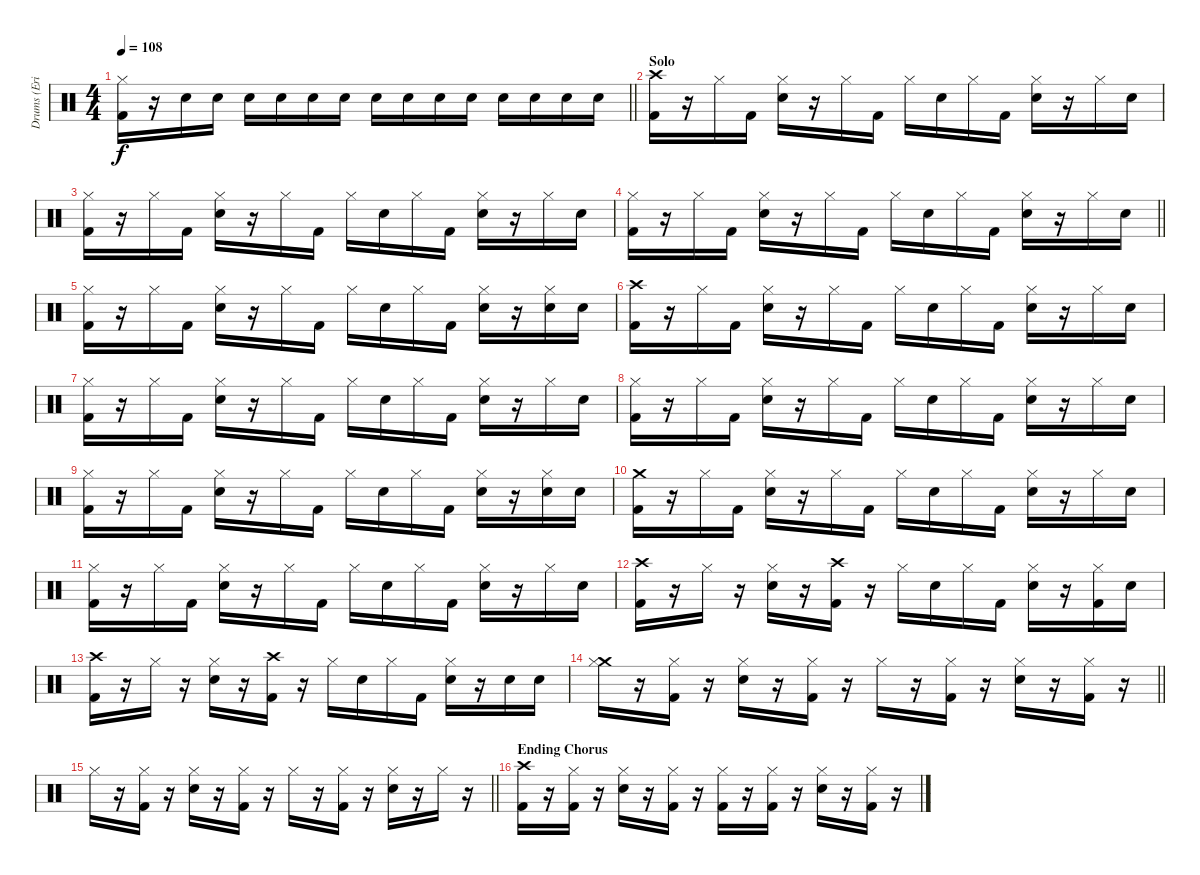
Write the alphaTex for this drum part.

\track ("Drums (Eric Kretz)" "Drums (Eri") {instrument percussion}
\staff {score}
\articulation defaults
\ts (4 4)
\tempo 108
\clef neutral
\barLineRight lightlight
\ks c
("Hi-Hat (closed)" "Kick (hit) 2").16{dy f} r.16 "Electric Snare (hit)".16 "Electric Snare (hit)".16 "Electric Snare (hit)".16 "Electric Snare (hit)".16 "Electric Snare (hit)".16 "Electric Snare (hit)".16 "Electric Snare (hit)".16 "Electric Snare (hit)".16 "Electric Snare (hit)".16 "Electric Snare (hit)".16 "Electric Snare (hit)".16 "Electric Snare (hit)".16 "Electric Snare (hit)".16 "Electric Snare (hit)".16 |
\section ("" "Solo")
("Crash high (hit)" "Kick (hit) 2").16 r.16 "Hi-Hat (closed)".16 "Kick (hit) 2".16 ("Hi-Hat (closed)" "Electric Snare (hit)").16 r.16 "Hi-Hat (closed)".16 "Kick (hit) 2".16 "Hi-Hat (closed)".16 "Electric Snare (hit)".16 "Hi-Hat (closed)".16 "Kick (hit) 2".16 ("Hi-Hat (closed)" "Electric Snare (hit)").16 r.16 "Hi-Hat (closed)".16 "Electric Snare (hit)".16 |
("Hi-Hat (closed)" "Kick (hit) 2").16 r.16 "Hi-Hat (closed)".16 "Kick (hit) 2".16 ("Hi-Hat (closed)" "Electric Snare (hit)").16 r.16 "Hi-Hat (closed)".16 "Kick (hit) 2".16 "Hi-Hat (closed)".16 "Electric Snare (hit)".16 "Hi-Hat (closed)".16 "Kick (hit) 2".16 ("Hi-Hat (closed)" "Electric Snare (hit)").16 r.16 "Hi-Hat (closed)".16 "Electric Snare (hit)".16 |
\barLineRight lightlight
("Hi-Hat (closed)" "Kick (hit) 2").16 r.16 "Hi-Hat (closed)".16 "Kick (hit) 2".16 ("Hi-Hat (closed)" "Electric Snare (hit)").16 r.16 "Hi-Hat (closed)".16 "Kick (hit) 2".16 "Hi-Hat (closed)".16 "Electric Snare (hit)".16 "Hi-Hat (closed)".16 "Kick (hit) 2".16 ("Hi-Hat (closed)" "Electric Snare (hit)").16 r.16 "Hi-Hat (closed)".16 "Electric Snare (hit)".16 |
("Hi-Hat (closed)" "Kick (hit) 2").16 r.16 "Hi-Hat (closed)".16 "Kick (hit) 2".16 ("Hi-Hat (closed)" "Electric Snare (hit)").16 r.16 "Hi-Hat (closed)".16 "Kick (hit) 2".16 "Hi-Hat (closed)".16 "Electric Snare (hit)".16 "Hi-Hat (closed)".16 "Kick (hit) 2".16 ("Hi-Hat (closed)" "Electric Snare (hit)").16 r.16 ("Hi-Hat (closed)" "Electric Snare (hit)").16 "Electric Snare (hit)".16 |
("Crash high (hit)" "Kick (hit) 2").16 r.16 "Hi-Hat (closed)".16 "Kick (hit) 2".16 ("Hi-Hat (closed)" "Electric Snare (hit)").16 r.16 "Hi-Hat (closed)".16 "Kick (hit) 2".16 "Hi-Hat (closed)".16 "Electric Snare (hit)".16 "Hi-Hat (closed)".16 "Kick (hit) 2".16 ("Hi-Hat (closed)" "Electric Snare (hit)").16 r.16 "Hi-Hat (closed)".16 "Electric Snare (hit)".16 |
("Hi-Hat (closed)" "Kick (hit) 2").16 r.16 "Hi-Hat (closed)".16 "Kick (hit) 2".16 ("Hi-Hat (closed)" "Electric Snare (hit)").16 r.16 "Hi-Hat (closed)".16 "Kick (hit) 2".16 "Hi-Hat (closed)".16 "Electric Snare (hit)".16 "Hi-Hat (closed)".16 "Kick (hit) 2".16 ("Hi-Hat (closed)" "Electric Snare (hit)").16 r.16 "Hi-Hat (closed)".16 "Electric Snare (hit)".16 |
("Hi-Hat (closed)" "Kick (hit) 2").16 r.16 "Hi-Hat (closed)".16 "Kick (hit) 2".16 ("Hi-Hat (closed)" "Electric Snare (hit)").16 r.16 "Hi-Hat (closed)".16 "Kick (hit) 2".16 "Hi-Hat (closed)".16 "Electric Snare (hit)".16 "Hi-Hat (closed)".16 "Kick (hit) 2".16 ("Hi-Hat (closed)" "Electric Snare (hit)").16 r.16 "Hi-Hat (closed)".16 "Electric Snare (hit)".16 |
("Hi-Hat (closed)" "Kick (hit) 2").16 r.16 "Hi-Hat (closed)".16 "Kick (hit) 2".16 ("Hi-Hat (closed)" "Electric Snare (hit)").16 r.16 "Hi-Hat (closed)".16 "Kick (hit) 2".16 "Hi-Hat (closed)".16 "Electric Snare (hit)".16 "Hi-Hat (closed)".16 "Kick (hit) 2".16 ("Hi-Hat (closed)" "Electric Snare (hit)").16 r.16 ("Hi-Hat (closed)" "Electric Snare (hit)").16 "Electric Snare (hit)".16 |
("Crash medium (hit)" "Kick (hit) 2").16 r.16 "Hi-Hat (closed)".16 "Kick (hit) 2".16 ("Hi-Hat (closed)" "Electric Snare (hit)").16 r.16 "Hi-Hat (closed)".16 "Kick (hit) 2".16 "Hi-Hat (closed)".16 "Electric Snare (hit)".16 "Hi-Hat (closed)".16 "Kick (hit) 2".16 ("Hi-Hat (closed)" "Electric Snare (hit)").16 r.16 "Hi-Hat (closed)".16 "Electric Snare (hit)".16 |
("Hi-Hat (closed)" "Kick (hit) 2").16 r.16 "Hi-Hat (closed)".16 "Kick (hit) 2".16 ("Hi-Hat (closed)" "Electric Snare (hit)").16 r.16 "Hi-Hat (closed)".16 "Kick (hit) 2".16 "Hi-Hat (closed)".16 "Electric Snare (hit)".16 "Hi-Hat (closed)".16 "Kick (hit) 2".16 ("Hi-Hat (closed)" "Electric Snare (hit)").16 r.16 "Hi-Hat (closed)".16 "Electric Snare (hit)".16 |
("Crash high (hit)" "Kick (hit) 2").16 r.16 "Hi-Hat (closed)".16 r.16 ("Hi-Hat (closed)" "Electric Snare (hit)").16 r.16 ("Crash high (hit)" "Kick (hit) 2").16 r.16 "Hi-Hat (closed)".16 "Electric Snare (hit)".16 "Hi-Hat (closed)".16 "Kick (hit) 2".16 ("Hi-Hat (closed)" "Electric Snare (hit)").16 r.16 ("Hi-Hat (closed)" "Kick (hit) 2").16 "Electric Snare (hit)".16 |
("Crash high (hit)" "Kick (hit) 2").16 r.16 "Hi-Hat (closed)".16 r.16 ("Hi-Hat (closed)" "Electric Snare (hit)").16 r.16 ("Crash high (hit)" "Kick (hit) 2").16 r.16 "Hi-Hat (closed)".16 "Electric Snare (hit)".16 "Hi-Hat (closed)".16 "Kick (hit) 2".16 ("Hi-Hat (closed)" "Electric Snare (hit)").16 r.16 "Electric Snare (hit)".16 "Electric Snare (hit)".16 |
\barLineRight lightlight
("Crash medium (hit)" "Hi-Hat (closed)").16 r.16 ("Hi-Hat (closed)" "Kick (hit) 2").16 r.16 ("Hi-Hat (closed)" "Electric Snare (hit)").16 r.16 ("Hi-Hat (closed)" "Kick (hit) 2").16 r.16 "Hi-Hat (closed)".16 r.16 ("Hi-Hat (closed)" "Kick (hit) 2").16 r.16 ("Hi-Hat (closed)" "Electric Snare (hit)").16 r.16 ("Hi-Hat (closed)" "Kick (hit) 2").16 r.16 |
\barLineRight lightlight "Hi-Hat (closed)".16
r.16 ("Hi-Hat (closed)" "Kick (hit) 2").16 r.16 ("Hi-Hat (closed)" "Electric Snare (hit)").16 r.16 ("Hi-Hat (closed)" "Kick (hit) 2").16 r.16 "Hi-Hat (closed)".16 r.16 ("Hi-Hat (closed)" "Kick (hit) 2").16 r.16 ("Hi-Hat (closed)" "Electric Snare (hit)").16 r.16 "Hi-Hat (closed)".16 r.16 |
\section ("" "Ending Chorus")
("Crash high (hit)" "Kick (hit) 2").16 r.16 ("Hi-Hat (closed)" "Kick (hit) 2").16 r.16 ("Hi-Hat (closed)" "Electric Snare (hit)").16 r.16 ("Hi-Hat (closed)" "Kick (hit) 2").16 r.16 ("Hi-Hat (closed)" "Kick (hit) 2").16 r.16 ("Hi-Hat (closed)" "Kick (hit) 2").16 r.16 ("Hi-Hat (closed)" "Electric Snare (hit)").16 r.16 ("Hi-Hat (closed)" "Kick (hit) 2").16 r.16
